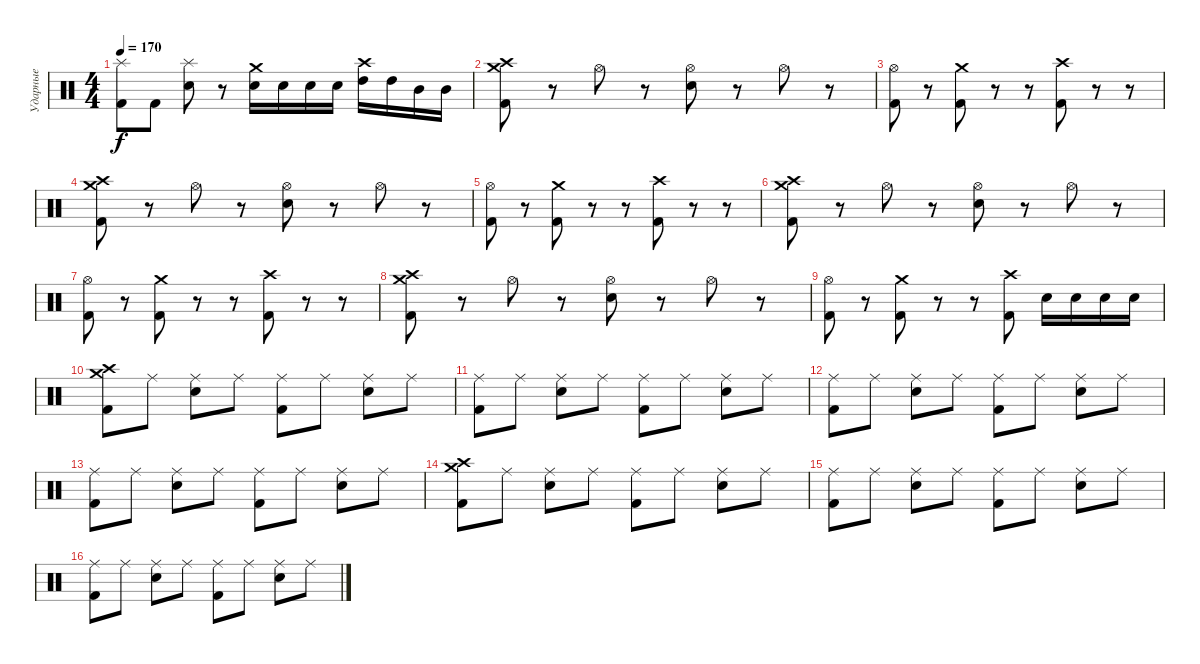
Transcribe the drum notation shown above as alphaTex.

\track ("Ударные" "Ударные") {instrument percussion}
\staff {score}
\articulation defaults
\ts (4 4)
\tempo 170
\clef neutral
\ks c
("Splash (hit)" "Kick (hit) 2").8{dy f} "Kick (hit) 2".8 ("Splash (hit)" "Electric Snare (hit)").8 r.8 ("Crash medium (hit)" "Electric Snare (hit)").16 "Electric Snare (hit)".16 "Electric Snare (hit)".16 "Electric Snare (hit)".16 ("Crash high (hit)" "High Tom (hit)").16 "High Tom (hit)".16 "Mid Tom (hit)".16 "Mid Tom (hit)".16 |
("Crash medium (hit)" "Crash high (hit)" "Kick (hit) 2").8 r.8 "Hi-Hat (open)".8 r.8 ("Hi-Hat (open)" "Electric Snare (hit)").8 r.8 "Hi-Hat (open)".8 r.8 |
("Hi-Hat (open)" "Kick (hit) 2").8 r.8 ("Crash medium (hit)" "Kick (hit) 2").8 r.8 r.8 ("Crash high (hit)" "Kick (hit) 2").8 r.8 r.8 |
("Crash medium (hit)" "Crash high (hit)" "Kick (hit) 2").8 r.8 "Hi-Hat (open)".8 r.8 ("Hi-Hat (open)" "Electric Snare (hit)").8 r.8 "Hi-Hat (open)".8 r.8 |
("Hi-Hat (open)" "Kick (hit) 2").8 r.8 ("Crash medium (hit)" "Kick (hit) 2").8 r.8 r.8 ("Crash high (hit)" "Kick (hit) 2").8 r.8 r.8 |
("Crash medium (hit)" "Crash high (hit)" "Kick (hit) 2").8 r.8 "Hi-Hat (open)".8 r.8 ("Hi-Hat (open)" "Electric Snare (hit)").8 r.8 "Hi-Hat (open)".8 r.8 |
("Hi-Hat (open)" "Kick (hit) 2").8 r.8 ("Crash medium (hit)" "Kick (hit) 2").8 r.8 r.8 ("Crash high (hit)" "Kick (hit) 2").8 r.8 r.8 |
("Crash medium (hit)" "Crash high (hit)" "Kick (hit) 2").8 r.8 "Hi-Hat (open)".8 r.8 ("Hi-Hat (open)" "Electric Snare (hit)").8 r.8 "Hi-Hat (open)".8 r.8 |
("Hi-Hat (open)" "Kick (hit) 2").8 r.8 ("Crash medium (hit)" "Kick (hit) 2").8 r.8 r.8 ("Crash high (hit)" "Kick (hit) 2").8 "Electric Snare (hit)".16 "Electric Snare (hit)".16 "Electric Snare (hit)".16 "Electric Snare (hit)".16 |
("Crash medium (hit)" "Crash high (hit)" "Kick (hit) 2").8 "Ride (middle)".8 ("Ride (middle)" "Electric Snare (hit)").8 "Ride (middle)".8 ("Ride (middle)" "Kick (hit) 2").8 "Ride (middle)".8 ("Ride (middle)" "Electric Snare (hit)").8 "Ride (middle)".8 |
("Ride (middle)" "Kick (hit) 2").8 "Ride (middle)".8 ("Ride (middle)" "Electric Snare (hit)").8 "Ride (middle)".8 ("Ride (middle)" "Kick (hit) 2").8 "Ride (middle)".8 ("Ride (middle)" "Electric Snare (hit)").8 "Ride (middle)".8 |
("Ride (middle)" "Kick (hit) 2").8 "Ride (middle)".8 ("Ride (middle)" "Electric Snare (hit)").8 "Ride (middle)".8 ("Ride (middle)" "Kick (hit) 2").8 "Ride (middle)".8 ("Ride (middle)" "Electric Snare (hit)").8 "Ride (middle)".8 |
("Ride (middle)" "Kick (hit) 2").8 "Ride (middle)".8 ("Ride (middle)" "Electric Snare (hit)").8 "Ride (middle)".8 ("Ride (middle)" "Kick (hit) 2").8 "Ride (middle)".8 ("Ride (middle)" "Electric Snare (hit)").8 "Ride (middle)".8 |
("Crash medium (hit)" "Crash high (hit)" "Kick (hit) 2").8 "Ride (middle)".8 ("Ride (middle)" "Electric Snare (hit)").8 "Ride (middle)".8 ("Ride (middle)" "Kick (hit) 2").8 "Ride (middle)".8 ("Ride (middle)" "Electric Snare (hit)").8 "Ride (middle)".8 |
("Ride (middle)" "Kick (hit) 2").8 "Ride (middle)".8 ("Ride (middle)" "Electric Snare (hit)").8 "Ride (middle)".8 ("Ride (middle)" "Kick (hit) 2").8 "Ride (middle)".8 ("Ride (middle)" "Electric Snare (hit)").8 "Ride (middle)".8 |
("Ride (middle)" "Kick (hit) 2").8 "Ride (middle)".8 ("Ride (middle)" "Electric Snare (hit)").8 "Ride (middle)".8 ("Ride (middle)" "Kick (hit) 2").8 "Ride (middle)".8 ("Ride (middle)" "Electric Snare (hit)").8 "Ride (middle)".8
